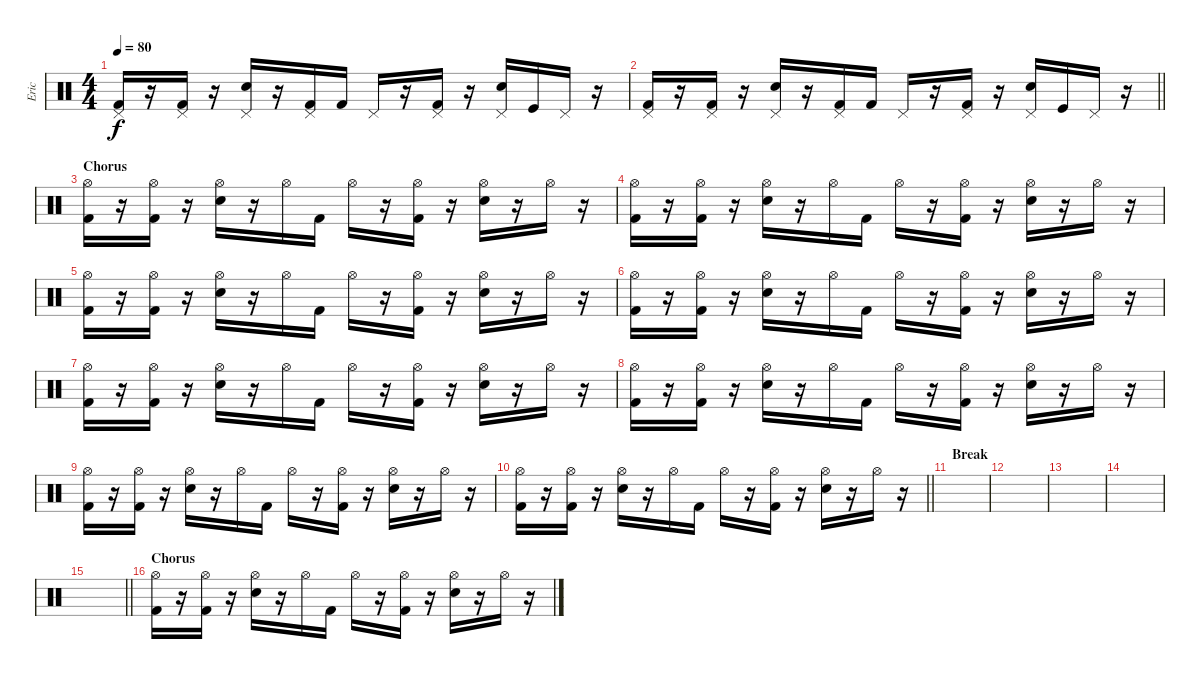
\track ("Eric" "Eric") {instrument percussion}
\staff {score}
\articulation defaults
\ts (4 4)
\tempo 80
\clef neutral
\ks c
("Pedal Hi-Hat (hit)" "Kick (hit) 2").16{dy f} r.16 ("Pedal Hi-Hat (hit)" "Kick (hit) 2").16 r.16 ("Pedal Hi-Hat (hit)" "Electric Snare (hit)").16 r.16 ("Pedal Hi-Hat (hit)" "Kick (hit) 2").16 "Kick (hit) 2".16 "Pedal Hi-Hat (hit)".16 r.16 ("Pedal Hi-Hat (hit)" "Kick (hit) 2").16 r.16 ("Pedal Hi-Hat (hit)" "Electric Snare (hit)").16 "Kick (hit)".16 "Pedal Hi-Hat (hit)".16 r.16 |
\barLineRight lightlight
("Pedal Hi-Hat (hit)" "Kick (hit) 2").16 r.16 ("Pedal Hi-Hat (hit)" "Kick (hit) 2").16 r.16 ("Pedal Hi-Hat (hit)" "Electric Snare (hit)").16 r.16 ("Pedal Hi-Hat (hit)" "Kick (hit) 2").16 "Kick (hit) 2".16 "Pedal Hi-Hat (hit)".16 r.16 ("Pedal Hi-Hat (hit)" "Kick (hit) 2").16 r.16 ("Pedal Hi-Hat (hit)" "Electric Snare (hit)").16 "Kick (hit)".16 "Pedal Hi-Hat (hit)".16 r.16 |
\section ("" "Chorus")
("Hi-Hat (open)" "Kick (hit) 2").16 r.16 ("Hi-Hat (open)" "Kick (hit) 2").16 r.16 ("Hi-Hat (open)" "Electric Snare (hit)").16 r.16 "Hi-Hat (open)".16 "Kick (hit) 2".16 "Hi-Hat (open)".16 r.16 ("Hi-Hat (open)" "Kick (hit) 2").16 r.16 ("Hi-Hat (open)" "Electric Snare (hit)").16 r.16 "Hi-Hat (open)".16 r.16 |
("Hi-Hat (open)" "Kick (hit) 2").16 r.16 ("Hi-Hat (open)" "Kick (hit) 2").16 r.16 ("Hi-Hat (open)" "Electric Snare (hit)").16 r.16 "Hi-Hat (open)".16 "Kick (hit) 2".16 "Hi-Hat (open)".16 r.16 ("Hi-Hat (open)" "Kick (hit) 2").16 r.16 ("Hi-Hat (open)" "Electric Snare (hit)").16 r.16 "Hi-Hat (open)".16 r.16 |
("Hi-Hat (open)" "Kick (hit) 2").16 r.16 ("Hi-Hat (open)" "Kick (hit) 2").16 r.16 ("Hi-Hat (open)" "Electric Snare (hit)").16 r.16 "Hi-Hat (open)".16 "Kick (hit) 2".16 "Hi-Hat (open)".16 r.16 ("Hi-Hat (open)" "Kick (hit) 2").16 r.16 ("Hi-Hat (open)" "Electric Snare (hit)").16 r.16 "Hi-Hat (open)".16 r.16 |
("Hi-Hat (open)" "Kick (hit) 2").16 r.16 ("Hi-Hat (open)" "Kick (hit) 2").16 r.16 ("Hi-Hat (open)" "Electric Snare (hit)").16 r.16 "Hi-Hat (open)".16 "Kick (hit) 2".16 "Hi-Hat (open)".16 r.16 ("Hi-Hat (open)" "Kick (hit) 2").16 r.16 ("Hi-Hat (open)" "Electric Snare (hit)").16 r.16 "Hi-Hat (open)".16 r.16 |
("Hi-Hat (open)" "Kick (hit) 2").16 r.16 ("Hi-Hat (open)" "Kick (hit) 2").16 r.16 ("Hi-Hat (open)" "Electric Snare (hit)").16 r.16 "Hi-Hat (open)".16 "Kick (hit) 2".16 "Hi-Hat (open)".16 r.16 ("Hi-Hat (open)" "Kick (hit) 2").16 r.16 ("Hi-Hat (open)" "Electric Snare (hit)").16 r.16 "Hi-Hat (open)".16 r.16 |
("Hi-Hat (open)" "Kick (hit) 2").16 r.16 ("Hi-Hat (open)" "Kick (hit) 2").16 r.16 ("Hi-Hat (open)" "Electric Snare (hit)").16 r.16 "Hi-Hat (open)".16 "Kick (hit) 2".16 "Hi-Hat (open)".16 r.16 ("Hi-Hat (open)" "Kick (hit) 2").16 r.16 ("Hi-Hat (open)" "Electric Snare (hit)").16 r.16 "Hi-Hat (open)".16 r.16 |
("Hi-Hat (open)" "Kick (hit) 2").16 r.16 ("Hi-Hat (open)" "Kick (hit) 2").16 r.16 ("Hi-Hat (open)" "Electric Snare (hit)").16 r.16 "Hi-Hat (open)".16 "Kick (hit) 2".16 "Hi-Hat (open)".16 r.16 ("Hi-Hat (open)" "Kick (hit) 2").16 r.16 ("Hi-Hat (open)" "Electric Snare (hit)").16 r.16 "Hi-Hat (open)".16 r.16 |
\barLineRight lightlight
("Hi-Hat (open)" "Kick (hit) 2").16 r.16 ("Hi-Hat (open)" "Kick (hit) 2").16 r.16 ("Hi-Hat (open)" "Electric Snare (hit)").16 r.16 "Hi-Hat (open)".16 "Kick (hit) 2".16 "Hi-Hat (open)".16 r.16 ("Hi-Hat (open)" "Kick (hit) 2").16 r.16 ("Hi-Hat (open)" "Electric Snare (hit)").16 r.16 "Hi-Hat (open)".16 r.16 |
\section ("" "Break")
|
|
|
|
\barLineRight lightlight
|
\section ("" "Chorus")
("Hi-Hat (open)" "Kick (hit) 2").16 r.16 ("Hi-Hat (open)" "Kick (hit) 2").16 r.16 ("Hi-Hat (open)" "Electric Snare (hit)").16 r.16 "Hi-Hat (open)".16 "Kick (hit) 2".16 "Hi-Hat (open)".16 r.16 ("Hi-Hat (open)" "Kick (hit) 2").16 r.16 ("Hi-Hat (open)" "Electric Snare (hit)").16 r.16 "Hi-Hat (open)".16 r.16
